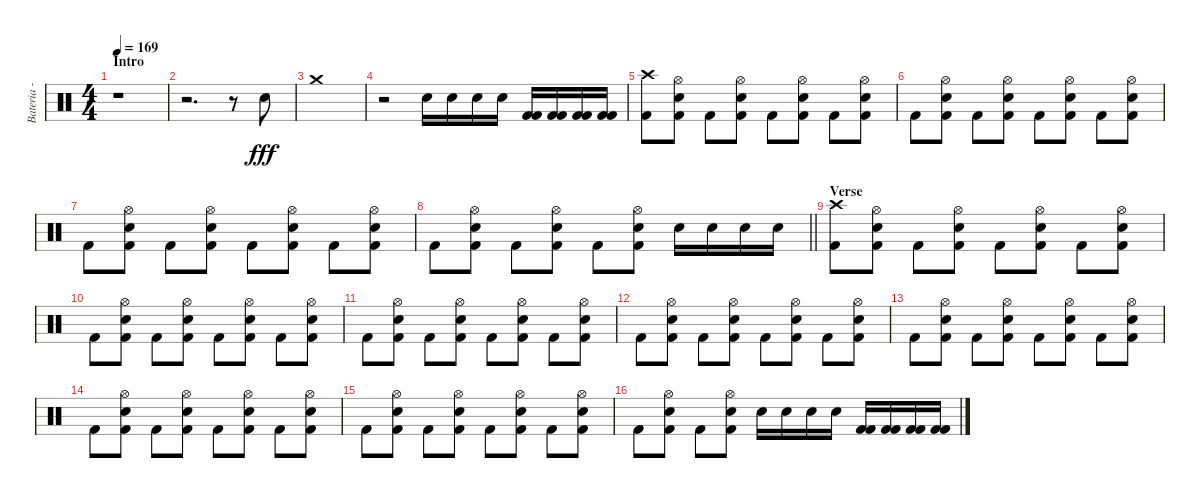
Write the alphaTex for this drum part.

\track ("Bateria - Larzon" "Bateria - ") {instrument percussion}
\staff {score}
\articulation defaults
\ts (4 4)
\section ("" "Intro")
\tempo 169
\clef neutral
\ks c
r.1{dy fff} |
r.2{d} r.8 "Snare (hit) 2".8 |
"Crash medium (hit)".1 |
r.2 "Snare (hit) 2".16 "Snare (hit) 2".16 "Snare (hit) 2".16 "Snare (hit) 2".16 ("Kick (hit) 2" "Kick (hit) 2").16 ("Kick (hit) 2" "Kick (hit) 2").16 ("Kick (hit) 2" "Kick (hit) 2").16 ("Kick (hit) 2" "Kick (hit) 2").16 |
("Crash high (hit)" "Kick (hit) 2").8 ("Kick (hit) 2" "Hi-Hat (open)" "Snare (hit) 2").8 "Kick (hit) 2".8 ("Kick (hit) 2" "Hi-Hat (open)" "Snare (hit) 2").8 "Kick (hit) 2".8 ("Kick (hit) 2" "Hi-Hat (open)" "Snare (hit) 2").8 "Kick (hit) 2".8 ("Kick (hit) 2" "Hi-Hat (open)" "Snare (hit) 2").8 |
"Kick (hit) 2".8 ("Kick (hit) 2" "Hi-Hat (open)" "Snare (hit) 2").8 "Kick (hit) 2".8 ("Kick (hit) 2" "Hi-Hat (open)" "Snare (hit) 2").8 "Kick (hit) 2".8 ("Kick (hit) 2" "Hi-Hat (open)" "Snare (hit) 2").8 "Kick (hit) 2".8 ("Kick (hit) 2" "Hi-Hat (open)" "Snare (hit) 2").8 |
"Kick (hit) 2".8 ("Kick (hit) 2" "Hi-Hat (open)" "Snare (hit) 2").8 "Kick (hit) 2".8 ("Kick (hit) 2" "Hi-Hat (open)" "Snare (hit) 2").8 "Kick (hit) 2".8 ("Kick (hit) 2" "Hi-Hat (open)" "Snare (hit) 2").8 "Kick (hit) 2".8 ("Kick (hit) 2" "Hi-Hat (open)" "Snare (hit) 2").8 |
\barLineRight lightlight "Kick (hit) 2".8
("Kick (hit) 2" "Hi-Hat (open)" "Snare (hit) 2").8 "Kick (hit) 2".8 ("Kick (hit) 2" "Hi-Hat (open)" "Snare (hit) 2").8 "Kick (hit) 2".8 ("Kick (hit) 2" "Hi-Hat (open)" "Snare (hit) 2").8 "Snare (hit) 2".16 "Snare (hit) 2".16 "Snare (hit) 2".16 "Snare (hit) 2".16 |
\section ("" "Verse")
("Crash high (hit)" "Kick (hit) 2").8 ("Kick (hit) 2" "Hi-Hat (open)" "Snare (hit) 2").8 "Kick (hit) 2".8 ("Kick (hit) 2" "Hi-Hat (open)" "Snare (hit) 2").8 "Kick (hit) 2".8 ("Kick (hit) 2" "Hi-Hat (open)" "Snare (hit) 2").8 "Kick (hit) 2".8 ("Kick (hit) 2" "Hi-Hat (open)" "Snare (hit) 2").8 |
"Kick (hit) 2".8 ("Kick (hit) 2" "Hi-Hat (open)" "Snare (hit) 2").8 "Kick (hit) 2".8 ("Kick (hit) 2" "Hi-Hat (open)" "Snare (hit) 2").8 "Kick (hit) 2".8 ("Kick (hit) 2" "Hi-Hat (open)" "Snare (hit) 2").8 "Kick (hit) 2".8 ("Kick (hit) 2" "Hi-Hat (open)" "Snare (hit) 2").8 |
"Kick (hit) 2".8 ("Kick (hit) 2" "Hi-Hat (open)" "Snare (hit) 2").8 "Kick (hit) 2".8 ("Kick (hit) 2" "Hi-Hat (open)" "Snare (hit) 2").8 "Kick (hit) 2".8 ("Kick (hit) 2" "Hi-Hat (open)" "Snare (hit) 2").8 "Kick (hit) 2".8 ("Kick (hit) 2" "Hi-Hat (open)" "Snare (hit) 2").8 |
"Kick (hit) 2".8 ("Kick (hit) 2" "Hi-Hat (open)" "Snare (hit) 2").8 "Kick (hit) 2".8 ("Kick (hit) 2" "Hi-Hat (open)" "Snare (hit) 2").8 "Kick (hit) 2".8 ("Kick (hit) 2" "Hi-Hat (open)" "Snare (hit) 2").8 "Kick (hit) 2".8 ("Kick (hit) 2" "Hi-Hat (open)" "Snare (hit) 2").8 |
"Kick (hit) 2".8 ("Kick (hit) 2" "Hi-Hat (open)" "Snare (hit) 2").8 "Kick (hit) 2".8 ("Kick (hit) 2" "Hi-Hat (open)" "Snare (hit) 2").8 "Kick (hit) 2".8 ("Kick (hit) 2" "Hi-Hat (open)" "Snare (hit) 2").8 "Kick (hit) 2".8 ("Kick (hit) 2" "Hi-Hat (open)" "Snare (hit) 2").8 |
"Kick (hit) 2".8 ("Kick (hit) 2" "Hi-Hat (open)" "Snare (hit) 2").8 "Kick (hit) 2".8 ("Kick (hit) 2" "Hi-Hat (open)" "Snare (hit) 2").8 "Kick (hit) 2".8 ("Kick (hit) 2" "Hi-Hat (open)" "Snare (hit) 2").8 "Kick (hit) 2".8 ("Kick (hit) 2" "Hi-Hat (open)" "Snare (hit) 2").8 |
"Kick (hit) 2".8 ("Kick (hit) 2" "Hi-Hat (open)" "Snare (hit) 2").8 "Kick (hit) 2".8 ("Kick (hit) 2" "Hi-Hat (open)" "Snare (hit) 2").8 "Kick (hit) 2".8 ("Kick (hit) 2" "Hi-Hat (open)" "Snare (hit) 2").8 "Kick (hit) 2".8 ("Kick (hit) 2" "Hi-Hat (open)" "Snare (hit) 2").8 |
"Kick (hit) 2".8 ("Kick (hit) 2" "Hi-Hat (open)" "Snare (hit) 2").8 "Kick (hit) 2".8 ("Kick (hit) 2" "Hi-Hat (open)" "Snare (hit) 2").8 "Snare (hit) 2".16 "Snare (hit) 2".16 "Snare (hit) 2".16 "Snare (hit) 2".16 ("Kick (hit) 2" "Kick (hit) 2").16 ("Kick (hit) 2" "Kick (hit) 2").16 ("Kick (hit) 2" "Kick (hit) 2").16 ("Kick (hit) 2" "Kick (hit) 2").16
